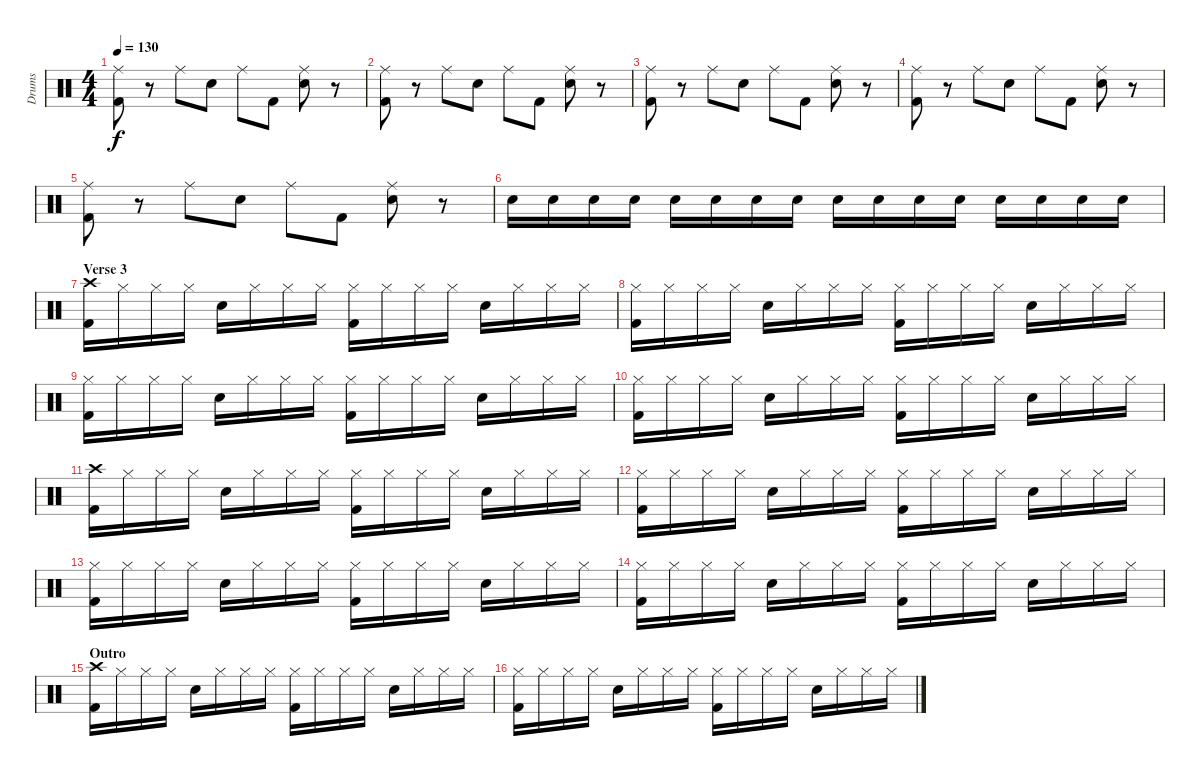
\track ("Drums" "Drums") {instrument percussion}
\staff {score}
\articulation defaults
\ts (4 4)
\tempo 130
\clef neutral
\ks c
("Ride (middle)" "Kick (hit) 2").8{dy f} r.8 "Ride (middle)".8 "Electric Snare (hit)".8 "Ride (middle)".8 "Kick (hit) 2".8 ("Ride (middle)" "Electric Snare (hit)").8 r.8 |
("Ride (middle)" "Kick (hit) 2").8 r.8 "Ride (middle)".8 "Electric Snare (hit)".8 "Ride (middle)".8 "Kick (hit) 2".8 ("Ride (middle)" "Electric Snare (hit)").8 r.8 |
("Ride (middle)" "Kick (hit) 2").8 r.8 "Ride (middle)".8 "Electric Snare (hit)".8 "Ride (middle)".8 "Kick (hit) 2".8 ("Ride (middle)" "Electric Snare (hit)").8 r.8 |
("Ride (middle)" "Kick (hit) 2").8 r.8 "Ride (middle)".8 "Electric Snare (hit)".8 "Ride (middle)".8 "Kick (hit) 2".8 ("Ride (middle)" "Electric Snare (hit)").8 r.8 |
("Ride (middle)" "Kick (hit) 2").8 r.8 "Ride (middle)".8 "Electric Snare (hit)".8 "Ride (middle)".8 "Kick (hit) 2".8 ("Ride (middle)" "Electric Snare (hit)").8 r.8 |
"Electric Snare (hit)".16 "Electric Snare (hit)".16 "Electric Snare (hit)".16 "Electric Snare (hit)".16 "Electric Snare (hit)".16 "Electric Snare (hit)".16 "Electric Snare (hit)".16 "Electric Snare (hit)".16 "Electric Snare (hit)".16 "Electric Snare (hit)".16 "Electric Snare (hit)".16 "Electric Snare (hit)".16 "Electric Snare (hit)".16 "Electric Snare (hit)".16 "Electric Snare (hit)".16 "Electric Snare (hit)".16 |
\section ("" "Verse 3")
("Crash high (hit)" "Kick (hit) 2").16 "Hi-Hat (closed)".16 "Hi-Hat (closed)".16 "Hi-Hat (closed)".16 "Electric Snare (hit)".16 "Hi-Hat (closed)".16 "Hi-Hat (closed)".16 "Hi-Hat (closed)".16 ("Hi-Hat (closed)" "Kick (hit) 2").16 "Hi-Hat (closed)".16 "Hi-Hat (closed)".16 "Hi-Hat (closed)".16 "Electric Snare (hit)".16 "Hi-Hat (closed)".16 "Hi-Hat (closed)".16 "Hi-Hat (closed)".16 |
("Hi-Hat (closed)" "Kick (hit) 2").16 "Hi-Hat (closed)".16 "Hi-Hat (closed)".16 "Hi-Hat (closed)".16 "Electric Snare (hit)".16 "Hi-Hat (closed)".16 "Hi-Hat (closed)".16 "Hi-Hat (closed)".16 ("Hi-Hat (closed)" "Kick (hit) 2").16 "Hi-Hat (closed)".16 "Hi-Hat (closed)".16 "Hi-Hat (closed)".16 "Electric Snare (hit)".16 "Hi-Hat (closed)".16 "Hi-Hat (closed)".16 "Hi-Hat (closed)".16 |
("Hi-Hat (closed)" "Kick (hit) 2").16 "Hi-Hat (closed)".16 "Hi-Hat (closed)".16 "Hi-Hat (closed)".16 "Electric Snare (hit)".16 "Hi-Hat (closed)".16 "Hi-Hat (closed)".16 "Hi-Hat (closed)".16 ("Hi-Hat (closed)" "Kick (hit) 2").16 "Hi-Hat (closed)".16 "Hi-Hat (closed)".16 "Hi-Hat (closed)".16 "Electric Snare (hit)".16 "Hi-Hat (closed)".16 "Hi-Hat (closed)".16 "Hi-Hat (closed)".16 |
("Hi-Hat (closed)" "Kick (hit) 2").16 "Hi-Hat (closed)".16 "Hi-Hat (closed)".16 "Hi-Hat (closed)".16 "Electric Snare (hit)".16 "Hi-Hat (closed)".16 "Hi-Hat (closed)".16 "Hi-Hat (closed)".16 ("Hi-Hat (closed)" "Kick (hit) 2").16 "Hi-Hat (closed)".16 "Hi-Hat (closed)".16 "Hi-Hat (closed)".16 "Electric Snare (hit)".16 "Hi-Hat (closed)".16 "Hi-Hat (closed)".16 "Hi-Hat (closed)".16 |
("Crash high (hit)" "Kick (hit) 2").16 "Hi-Hat (closed)".16 "Hi-Hat (closed)".16 "Hi-Hat (closed)".16 "Electric Snare (hit)".16 "Hi-Hat (closed)".16 "Hi-Hat (closed)".16 "Hi-Hat (closed)".16 ("Hi-Hat (closed)" "Kick (hit) 2").16 "Hi-Hat (closed)".16 "Hi-Hat (closed)".16 "Hi-Hat (closed)".16 "Electric Snare (hit)".16 "Hi-Hat (closed)".16 "Hi-Hat (closed)".16 "Hi-Hat (closed)".16 |
("Hi-Hat (closed)" "Kick (hit) 2").16 "Hi-Hat (closed)".16 "Hi-Hat (closed)".16 "Hi-Hat (closed)".16 "Electric Snare (hit)".16 "Hi-Hat (closed)".16 "Hi-Hat (closed)".16 "Hi-Hat (closed)".16 ("Hi-Hat (closed)" "Kick (hit) 2").16 "Hi-Hat (closed)".16 "Hi-Hat (closed)".16 "Hi-Hat (closed)".16 "Electric Snare (hit)".16 "Hi-Hat (closed)".16 "Hi-Hat (closed)".16 "Hi-Hat (closed)".16 |
("Hi-Hat (closed)" "Kick (hit) 2").16 "Hi-Hat (closed)".16 "Hi-Hat (closed)".16 "Hi-Hat (closed)".16 "Electric Snare (hit)".16 "Hi-Hat (closed)".16 "Hi-Hat (closed)".16 "Hi-Hat (closed)".16 ("Hi-Hat (closed)" "Kick (hit) 2").16 "Hi-Hat (closed)".16 "Hi-Hat (closed)".16 "Hi-Hat (closed)".16 "Electric Snare (hit)".16 "Hi-Hat (closed)".16 "Hi-Hat (closed)".16 "Hi-Hat (closed)".16 |
("Hi-Hat (closed)" "Kick (hit) 2").16 "Hi-Hat (closed)".16 "Hi-Hat (closed)".16 "Hi-Hat (closed)".16 "Electric Snare (hit)".16 "Hi-Hat (closed)".16 "Hi-Hat (closed)".16 "Hi-Hat (closed)".16 ("Hi-Hat (closed)" "Kick (hit) 2").16 "Hi-Hat (closed)".16 "Hi-Hat (closed)".16 "Hi-Hat (closed)".16 "Electric Snare (hit)".16 "Hi-Hat (closed)".16 "Hi-Hat (closed)".16 "Hi-Hat (closed)".16 |
\section ("" "Outro")
("Crash high (hit)" "Kick (hit) 2").16 "Hi-Hat (closed)".16 "Hi-Hat (closed)".16 "Hi-Hat (closed)".16 "Electric Snare (hit)".16 "Hi-Hat (closed)".16 "Hi-Hat (closed)".16 "Hi-Hat (closed)".16 ("Hi-Hat (closed)" "Kick (hit) 2").16 "Hi-Hat (closed)".16 "Hi-Hat (closed)".16 "Hi-Hat (closed)".16 "Electric Snare (hit)".16 "Hi-Hat (closed)".16 "Hi-Hat (closed)".16 "Hi-Hat (closed)".16 |
("Hi-Hat (closed)" "Kick (hit) 2").16 "Hi-Hat (closed)".16 "Hi-Hat (closed)".16 "Hi-Hat (closed)".16 "Electric Snare (hit)".16 "Hi-Hat (closed)".16 "Hi-Hat (closed)".16 "Hi-Hat (closed)".16 ("Hi-Hat (closed)" "Kick (hit) 2").16 "Hi-Hat (closed)".16 "Hi-Hat (closed)".16 "Hi-Hat (closed)".16 "Electric Snare (hit)".16 "Hi-Hat (closed)".16 "Hi-Hat (closed)".16 "Hi-Hat (closed)".16
